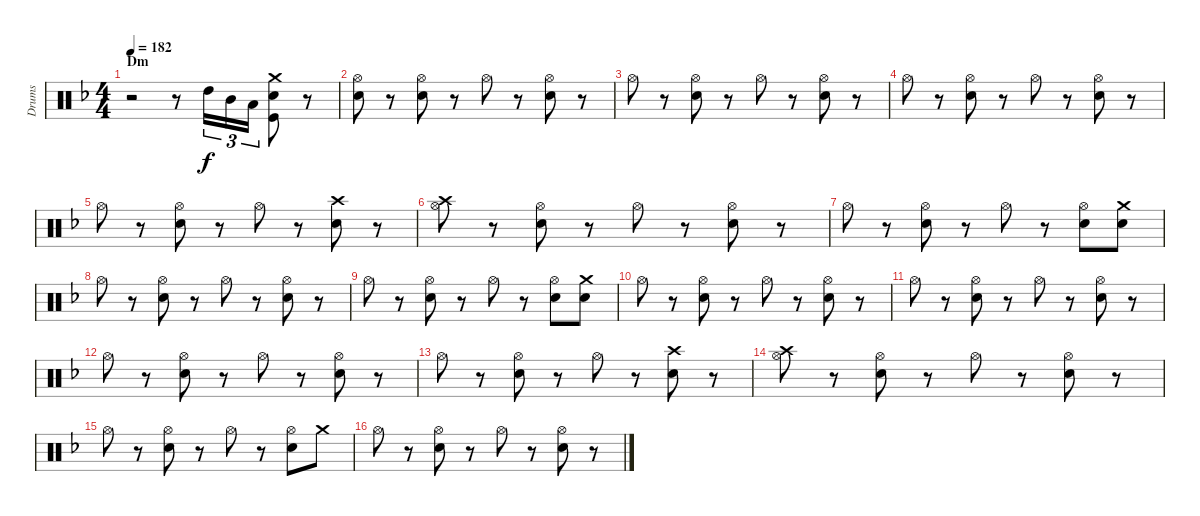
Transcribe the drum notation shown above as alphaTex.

\track ("Drums" "Drums") {instrument percussion}
\staff {score}
\articulation defaults
\ts (4 4)
\section ("" "Dm")
\tempo 182
\clef neutral
\ks dminor
r.2{dy f} r.8 "High Tom (hit)".16{tu (3 2)} "Mid Tom (hit)".16{tu (3 2)} "Low Tom (hit)".16{tu (3 2)} ("Snare (hit) 2" "Kick (hit)" "Crash medium (hit)").8 r.8 |
("Hi-Hat (open)" "Snare (hit) 2").8 r.8 ("Hi-Hat (open)" "Snare (hit) 2").8 r.8 "Hi-Hat (open)".8 r.8 ("Hi-Hat (open)" "Snare (hit) 2").8 r.8 |
"Hi-Hat (open)".8 r.8 ("Hi-Hat (open)" "Snare (hit) 2").8 r.8 "Hi-Hat (open)".8 r.8 ("Hi-Hat (open)" "Snare (hit) 2").8 r.8 |
"Hi-Hat (open)".8 r.8 ("Hi-Hat (open)" "Snare (hit) 2").8 r.8 "Hi-Hat (open)".8 r.8 ("Hi-Hat (open)" "Snare (hit) 2").8 r.8 |
"Hi-Hat (open)".8 r.8 ("Hi-Hat (open)" "Snare (hit) 2").8 r.8 "Hi-Hat (open)".8 r.8 ("Crash high (hit)" "Snare (hit) 2").8 r.8 |
("Hi-Hat (open)" "Crash high (hit)").8 r.8 ("Hi-Hat (open)" "Snare (hit) 2").8 r.8 "Hi-Hat (open)".8 r.8 ("Hi-Hat (open)" "Snare (hit) 2").8 r.8 |
"Hi-Hat (open)".8 r.8 ("Hi-Hat (open)" "Snare (hit) 2").8 r.8 "Hi-Hat (open)".8 r.8 ("Hi-Hat (open)" "Snare (hit) 2").8 ("Crash medium (hit)" "Snare (hit) 2").8 |
"Hi-Hat (open)".8 r.8 ("Hi-Hat (open)" "Snare (hit) 2").8 r.8 "Hi-Hat (open)".8 r.8 ("Hi-Hat (open)" "Snare (hit) 2").8 r.8 |
"Hi-Hat (open)".8 r.8 ("Hi-Hat (open)" "Snare (hit) 2").8 r.8 "Hi-Hat (open)".8 r.8 ("Hi-Hat (open)" "Snare (hit) 2").8 ("Crash medium (hit)" "Snare (hit) 2").8 |
"Hi-Hat (open)".8 r.8 ("Hi-Hat (open)" "Snare (hit) 2").8 r.8 "Hi-Hat (open)".8 r.8 ("Hi-Hat (open)" "Snare (hit) 2").8 r.8 |
"Hi-Hat (open)".8 r.8 ("Hi-Hat (open)" "Snare (hit) 2").8 r.8 "Hi-Hat (open)".8 r.8 ("Hi-Hat (open)" "Snare (hit) 2").8 r.8 |
"Hi-Hat (open)".8 r.8 ("Hi-Hat (open)" "Snare (hit) 2").8 r.8 "Hi-Hat (open)".8 r.8 ("Hi-Hat (open)" "Snare (hit) 2").8 r.8 |
"Hi-Hat (open)".8 r.8 ("Hi-Hat (open)" "Snare (hit) 2").8 r.8 "Hi-Hat (open)".8 r.8 ("Crash high (hit)" "Snare (hit) 2").8 r.8 |
("Hi-Hat (open)" "Crash high (hit)").8 r.8 ("Hi-Hat (open)" "Snare (hit) 2").8 r.8 "Hi-Hat (open)".8 r.8 ("Hi-Hat (open)" "Snare (hit) 2").8 r.8 |
"Hi-Hat (open)".8 r.8 ("Hi-Hat (open)" "Snare (hit) 2").8 r.8 "Hi-Hat (open)".8 r.8 ("Hi-Hat (open)" "Snare (hit) 2").8 "Crash medium (hit)".8 |
"Hi-Hat (open)".8 r.8 ("Hi-Hat (open)" "Snare (hit) 2").8 r.8 "Hi-Hat (open)".8 r.8 ("Hi-Hat (open)" "Snare (hit) 2").8 r.8
